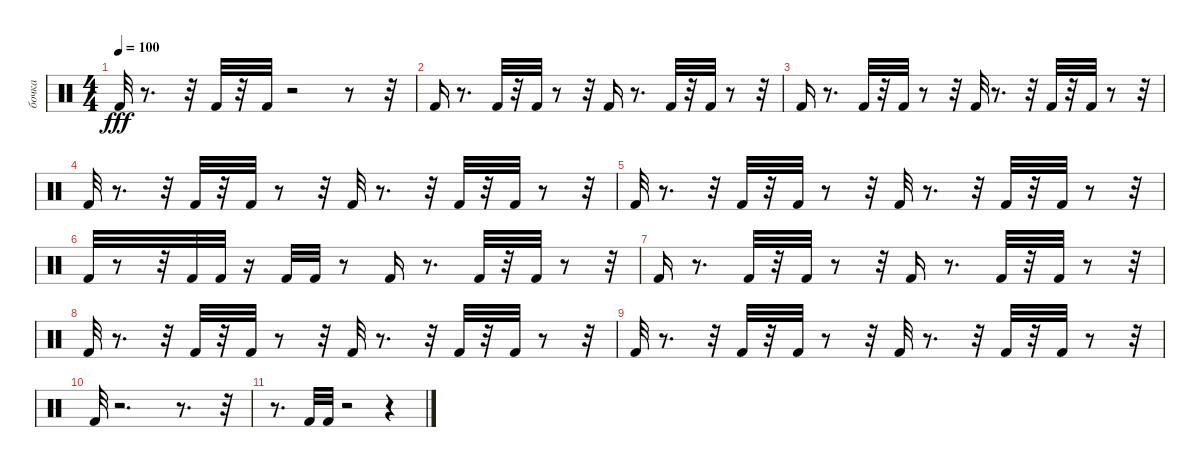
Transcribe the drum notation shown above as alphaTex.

\track ("бочка" "бочка") {instrument percussion}
\staff {score}
\articulation defaults
\ts (4 4)
\tempo 100
\clef neutral
\ks c "Kick (hit) 2".32{dy fff}
r.8{d} r.32 "Kick (hit) 2".32 r.32 "Kick (hit) 2".32 r.2 r.8 r.32 |
"Kick (hit) 2".16 r.8{d} "Kick (hit) 2".32 r.32 "Kick (hit) 2".32 r.8 r.32 "Kick (hit) 2".16 r.8{d} "Kick (hit) 2".32 r.32 "Kick (hit) 2".32 r.8 r.32 |
"Kick (hit) 2".16 r.8{d} "Kick (hit) 2".32 r.32 "Kick (hit) 2".32 r.8 r.32 "Kick (hit) 2".32 r.8{d} r.32 "Kick (hit) 2".32 r.32 "Kick (hit) 2".32 r.8 r.32 |
"Kick (hit) 2".32 r.8{d} r.32 "Kick (hit) 2".32 r.32 "Kick (hit) 2".32 r.8 r.32 "Kick (hit) 2".32 r.8{d} r.32 "Kick (hit) 2".32 r.32 "Kick (hit) 2".32 r.8 r.32 |
"Kick (hit) 2".32 r.8{d} r.32 "Kick (hit) 2".32 r.32 "Kick (hit) 2".32 r.8 r.32 "Kick (hit) 2".32 r.8{d} r.32 "Kick (hit) 2".32 r.32 "Kick (hit) 2".32 r.8 r.32 |
"Kick (hit) 2".32 r.8 r.32 "Kick (hit) 2".32 "Kick (hit) 2".32 r.16 "Kick (hit) 2".32 "Kick (hit) 2".32 r.8 "Kick (hit) 2".16 r.8{d} "Kick (hit) 2".32 r.32 "Kick (hit) 2".32 r.8 r.32 |
"Kick (hit) 2".16 r.8{d} "Kick (hit) 2".32 r.32 "Kick (hit) 2".32 r.8 r.32 "Kick (hit) 2".16 r.8{d} "Kick (hit) 2".32 r.32 "Kick (hit) 2".32 r.8 r.32 |
"Kick (hit) 2".32 r.8{d} r.32 "Kick (hit) 2".32 r.32 "Kick (hit) 2".32 r.8 r.32 "Kick (hit) 2".32 r.8{d} r.32 "Kick (hit) 2".32 r.32 "Kick (hit) 2".32 r.8 r.32 |
"Kick (hit) 2".32 r.8{d} r.32 "Kick (hit) 2".32 r.32 "Kick (hit) 2".32 r.8 r.32 "Kick (hit) 2".32 r.8{d} r.32 "Kick (hit) 2".32 r.32 "Kick (hit) 2".32 r.8 r.32 |
"Kick (hit) 2".32 r.2{d} r.8{d} r.32 |
r.8{d} "Kick (hit) 2".32 "Kick (hit) 2".32 r.2 r.4
